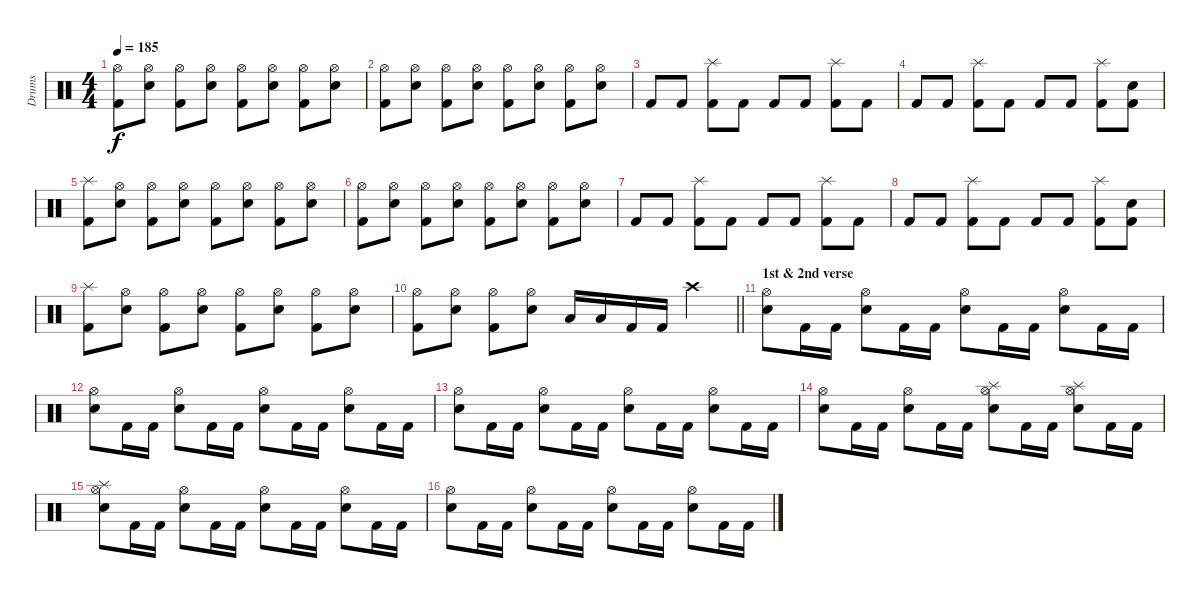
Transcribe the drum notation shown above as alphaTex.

\track ("Drums" "Drums") {instrument percussion}
\staff {score}
\articulation defaults
\ts (4 4)
\tempo 185
\clef neutral
\ks c
("Kick (hit) 2" "Hi-Hat (open)").8{dy f} ("Snare (hit) 2" "Hi-Hat (open)").8 ("Kick (hit) 2" "Hi-Hat (open)").8 ("Snare (hit) 2" "Hi-Hat (open)").8 ("Kick (hit) 2" "Hi-Hat (open)").8 ("Snare (hit) 2" "Hi-Hat (open)").8 ("Kick (hit) 2" "Hi-Hat (open)").8 ("Snare (hit) 2" "Hi-Hat (open)").8 |
("Kick (hit) 2" "Hi-Hat (open)").8 ("Snare (hit) 2" "Hi-Hat (open)").8 ("Kick (hit) 2" "Hi-Hat (open)").8 ("Snare (hit) 2" "Hi-Hat (open)").8 ("Kick (hit) 2" "Hi-Hat (open)").8 ("Snare (hit) 2" "Hi-Hat (open)").8 ("Kick (hit) 2" "Hi-Hat (open)").8 ("Snare (hit) 2" "Hi-Hat (open)").8 |
"Kick (hit) 2".8 "Kick (hit) 2".8 ("Splash (hit)" "Kick (hit) 2").8 "Kick (hit) 2".8 "Kick (hit) 2".8 "Kick (hit) 2".8 ("Splash (hit)" "Kick (hit) 2").8 "Kick (hit) 2".8 |
"Kick (hit) 2".8 "Kick (hit) 2".8 ("Splash (hit)" "Kick (hit) 2").8 "Kick (hit) 2".8 "Kick (hit) 2".8 "Kick (hit) 2".8 ("Splash (hit)" "Kick (hit) 2").8 ("Snare (hit) 2" "Kick (hit) 2").8 |
("Kick (hit) 2" "Splash (hit)").8 ("Snare (hit) 2" "Hi-Hat (open)").8 ("Kick (hit) 2" "Hi-Hat (open)").8 ("Snare (hit) 2" "Hi-Hat (open)").8 ("Kick (hit) 2" "Hi-Hat (open)").8 ("Snare (hit) 2" "Hi-Hat (open)").8 ("Kick (hit) 2" "Hi-Hat (open)").8 ("Snare (hit) 2" "Hi-Hat (open)").8 |
("Kick (hit) 2" "Hi-Hat (open)").8 ("Snare (hit) 2" "Hi-Hat (open)").8 ("Kick (hit) 2" "Hi-Hat (open)").8 ("Snare (hit) 2" "Hi-Hat (open)").8 ("Kick (hit) 2" "Hi-Hat (open)").8 ("Snare (hit) 2" "Hi-Hat (open)").8 ("Kick (hit) 2" "Hi-Hat (open)").8 ("Snare (hit) 2" "Hi-Hat (open)").8 |
"Kick (hit) 2".8 "Kick (hit) 2".8 ("Splash (hit)" "Kick (hit) 2").8 "Kick (hit) 2".8 "Kick (hit) 2".8 "Kick (hit) 2".8 ("Splash (hit)" "Kick (hit) 2").8 "Kick (hit) 2".8 |
"Kick (hit) 2".8 "Kick (hit) 2".8 ("Splash (hit)" "Kick (hit) 2").8 "Kick (hit) 2".8 "Kick (hit) 2".8 "Kick (hit) 2".8 ("Splash (hit)" "Kick (hit) 2").8 ("Snare (hit) 2" "Kick (hit) 2").8 |
("Kick (hit) 2" "Splash (hit)").8 ("Snare (hit) 2" "Hi-Hat (open)").8 ("Kick (hit) 2" "Hi-Hat (open)").8 ("Snare (hit) 2" "Hi-Hat (open)").8 ("Kick (hit) 2" "Hi-Hat (open)").8 ("Snare (hit) 2" "Hi-Hat (open)").8 ("Kick (hit) 2" "Hi-Hat (open)").8 ("Snare (hit) 2" "Hi-Hat (open)").8 |
\barLineRight lightlight
("Kick (hit) 2" "Hi-Hat (open)").8 ("Snare (hit) 2" "Hi-Hat (open)").8 ("Kick (hit) 2" "Hi-Hat (open)").8 ("Snare (hit) 2" "Hi-Hat (open)").8 "Low Floor Tom (hit)".16 "Low Tom (hit)".16 "Kick (hit) 2".16 "Kick (hit) 2".16 "Crash high (hit)".4 |
\section ("" "1st & 2nd verse")
("Hi-Hat (open)" "Snare (hit) 2").8 "Kick (hit) 2".16 "Kick (hit) 2".16 ("Hi-Hat (open)" "Snare (hit) 2").8 "Kick (hit) 2".16 "Kick (hit) 2".16 ("Hi-Hat (open)" "Snare (hit) 2").8 "Kick (hit) 2".16 "Kick (hit) 2".16 ("Hi-Hat (open)" "Snare (hit) 2").8 "Kick (hit) 2".16 "Kick (hit) 2".16 |
("Hi-Hat (open)" "Snare (hit) 2").8 "Kick (hit) 2".16 "Kick (hit) 2".16 ("Hi-Hat (open)" "Snare (hit) 2").8 "Kick (hit) 2".16 "Kick (hit) 2".16 ("Hi-Hat (open)" "Snare (hit) 2").8 "Kick (hit) 2".16 "Kick (hit) 2".16 ("Hi-Hat (open)" "Snare (hit) 2").8 "Kick (hit) 2".16 "Kick (hit) 2".16 |
("Hi-Hat (open)" "Snare (hit) 2").8 "Kick (hit) 2".16 "Kick (hit) 2".16 ("Hi-Hat (open)" "Snare (hit) 2").8 "Kick (hit) 2".16 "Kick (hit) 2".16 ("Hi-Hat (open)" "Snare (hit) 2").8 "Kick (hit) 2".16 "Kick (hit) 2".16 ("Hi-Hat (open)" "Snare (hit) 2").8 "Kick (hit) 2".16 "Kick (hit) 2".16 |
("Hi-Hat (open)" "Snare (hit) 2").8 "Kick (hit) 2".16 "Kick (hit) 2".16 ("Hi-Hat (open)" "Snare (hit) 2").8 "Kick (hit) 2".16 "Kick (hit) 2".16 ("Hi-Hat (open)" "Snare (hit) 2" "Splash (hit)").8 "Kick (hit) 2".16 "Kick (hit) 2".16 ("Hi-Hat (open)" "Snare (hit) 2" "Splash (hit)").8 "Kick (hit) 2".16 "Kick (hit) 2".16 |
("Hi-Hat (open)" "Snare (hit) 2" "Splash (hit)").8 "Kick (hit) 2".16 "Kick (hit) 2".16 ("Hi-Hat (open)" "Snare (hit) 2").8 "Kick (hit) 2".16 "Kick (hit) 2".16 ("Hi-Hat (open)" "Snare (hit) 2").8 "Kick (hit) 2".16 "Kick (hit) 2".16 ("Hi-Hat (open)" "Snare (hit) 2").8 "Kick (hit) 2".16 "Kick (hit) 2".16 |
("Hi-Hat (open)" "Snare (hit) 2").8 "Kick (hit) 2".16 "Kick (hit) 2".16 ("Hi-Hat (open)" "Snare (hit) 2").8 "Kick (hit) 2".16 "Kick (hit) 2".16 ("Hi-Hat (open)" "Snare (hit) 2").8 "Kick (hit) 2".16 "Kick (hit) 2".16 ("Hi-Hat (open)" "Snare (hit) 2").8 "Kick (hit) 2".16 "Kick (hit) 2".16
